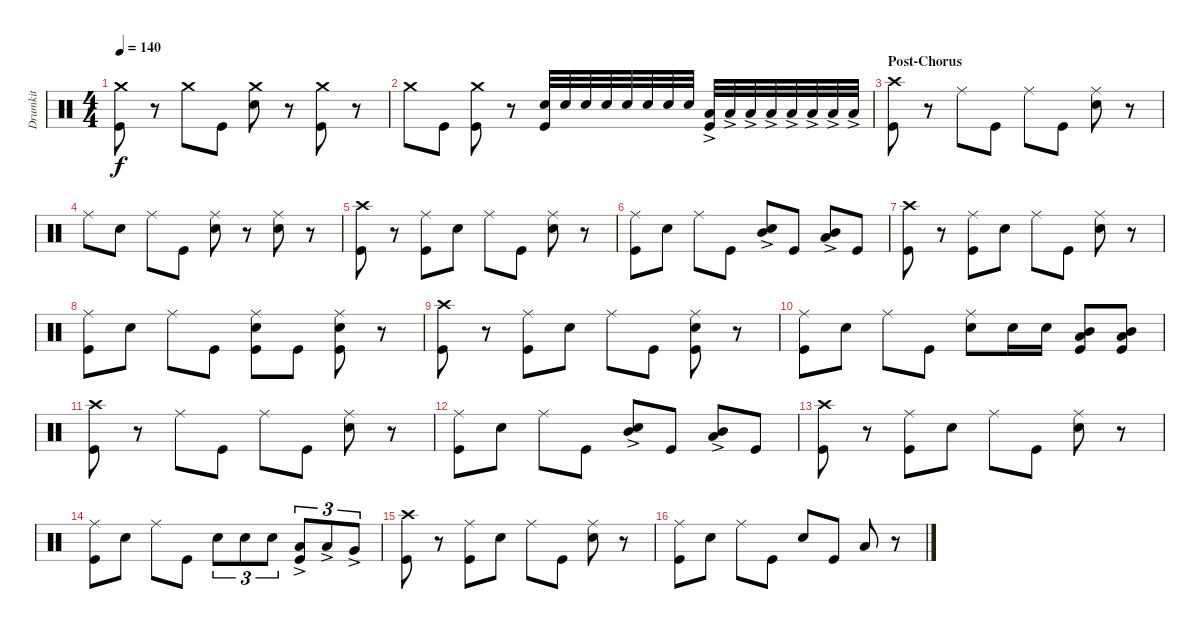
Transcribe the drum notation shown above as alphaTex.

\track ("Drumkit" "Drumkit") {instrument percussion}
\staff {score}
\articulation defaults
\ts (4 4)
\tempo 140
\clef neutral
\ks c
("Kick (hit)" "Crash medium (hit)").8{dy f} r.8 "Crash medium (hit)".8 "Kick (hit)".8 ("Snare (hit) 2" "Crash medium (hit)").8 r.8 ("Kick (hit)" "Crash medium (hit)").8 r.8 |
"Crash medium (hit)".8 "Kick (hit)".8 ("Kick (hit)" "Crash medium (hit)").8 r.8 ("Snare (hit) 2" "Kick (hit)").32 "Snare (hit) 2".32 "Snare (hit) 2".32 "Snare (hit) 2".32 "Snare (hit) 2".32 "Snare (hit) 2".32 "Snare (hit) 2".32 "Snare (hit) 2".32 ("Low Tom (hit)"{ac} "Kick (hit)"{ac}).32 "Low Tom (hit)"{ac}.32 "Low Tom (hit)"{ac}.32 "Low Tom (hit)"{ac}.32 "Low Tom (hit)"{ac}.32 "Low Tom (hit)"{ac}.32 "Low Tom (hit)"{ac}.32 "Low Tom (hit)"{ac}.32 |
\section ("" "Post-Chorus")
("Kick (hit)" "Crash high (hit)").8 r.8 "Ride (middle)".8 "Kick (hit)".8 "Ride (middle)".8 "Kick (hit)".8 ("Snare (hit) 2" "Ride (middle)").8 r.8 |
"Ride (middle)".8 "Snare (hit) 2".8 "Ride (middle)".8 "Kick (hit)".8 ("Snare (hit) 2" "Ride (middle)").8 r.8 ("Snare (hit) 2" "Ride (middle)").8 r.8 |
("Kick (hit)" "Crash high (hit)").8 r.8 ("Kick (hit)" "Ride (middle)").8 "Snare (hit) 2".8 "Ride (middle)".8 "Kick (hit)".8 ("Snare (hit) 2" "Ride (middle)").8 r.8 |
("Ride (middle)" "Kick (hit)").8 "Snare (hit) 2".8 "Ride (middle)".8 "Kick (hit)".8 ("Snare (hit) 2"{ac} "Mid Tom (hit)"{ac}).8 "Kick (hit)".8 ("Mid Tom (hit)"{ac} "Low Tom (hit)"{ac}).8 "Kick (hit)".8 |
("Kick (hit)" "Crash high (hit)").8 r.8 ("Kick (hit)" "Ride (middle)").8 "Snare (hit) 2".8 "Ride (middle)".8 "Kick (hit)".8 ("Snare (hit) 2" "Ride (middle)").8 r.8 |
("Kick (hit)" "Ride (middle)").8 "Snare (hit) 2".8 "Ride (middle)".8 "Kick (hit)".8 ("Snare (hit) 2" "Ride (middle)" "Kick (hit)").8 "Kick (hit)".8 ("Snare (hit) 2" "Ride (middle)" "Kick (hit)").8 r.8 |
("Kick (hit)" "Crash high (hit)").8 r.8 ("Kick (hit)" "Ride (middle)").8 "Snare (hit) 2".8 "Ride (middle)".8 "Kick (hit)".8 ("Kick (hit)" "Snare (hit) 2" "Ride (middle)").8 r.8 |
("Ride (middle)" "Kick (hit)").8 "Snare (hit) 2".8 "Ride (middle)".8 "Kick (hit)".8 ("Ride (middle)" "Snare (hit) 2").8 "Snare (hit) 2".16 "Snare (hit) 2".16 ("Low Tom (hit)" "Kick (hit)" "Mid Tom (hit)").8 ("Low Tom (hit)" "Kick (hit)" "Mid Tom (hit)").8 |
("Kick (hit)" "Crash high (hit)").8 r.8 "Ride (middle)".8 "Kick (hit)".8 "Ride (middle)".8 "Kick (hit)".8 ("Snare (hit) 2" "Ride (middle)").8 r.8 |
("Ride (middle)" "Kick (hit)").8 "Snare (hit) 2".8 "Ride (middle)".8 "Kick (hit)".8 ("Snare (hit) 2"{ac} "Mid Tom (hit)"{ac}).8 "Kick (hit)".8 ("Mid Tom (hit)"{ac} "Low Tom (hit)"{ac}).8 "Kick (hit)".8 |
("Kick (hit)" "Crash high (hit)").8 r.8 ("Kick (hit)" "Ride (middle)").8 "Snare (hit) 2".8 "Ride (middle)".8 "Kick (hit)".8 ("Snare (hit) 2" "Ride (middle)").8 r.8 |
("Ride (middle)" "Kick (hit)").8 "Snare (hit) 2".8 "Ride (middle)".8 "Kick (hit)".8 "Snare (hit) 2".8{tu (3 2)} "Snare (hit) 2".8{tu (3 2)} "Snare (hit) 2".8{tu (3 2)} ("Low Tom (hit)"{ac} "Kick (hit)").8{tu (3 2)} "Low Tom (hit)"{ac}.8{tu (3 2)} "Very Low Tom (hit)"{ac}.8{tu (3 2)} |
("Kick (hit)" "Crash high (hit)").8 r.8 ("Kick (hit)" "Ride (middle)").8 "Snare (hit) 2".8 "Ride (middle)".8 "Kick (hit)".8 ("Snare (hit) 2" "Ride (middle)").8 r.8 |
("Ride (middle)" "Kick (hit)").8 "Snare (hit) 2".8 "Ride (middle)".8 "Kick (hit)".8 "Snare (hit) 2".8 "Kick (hit)".8 "Low Tom (hit)".8 r.8
